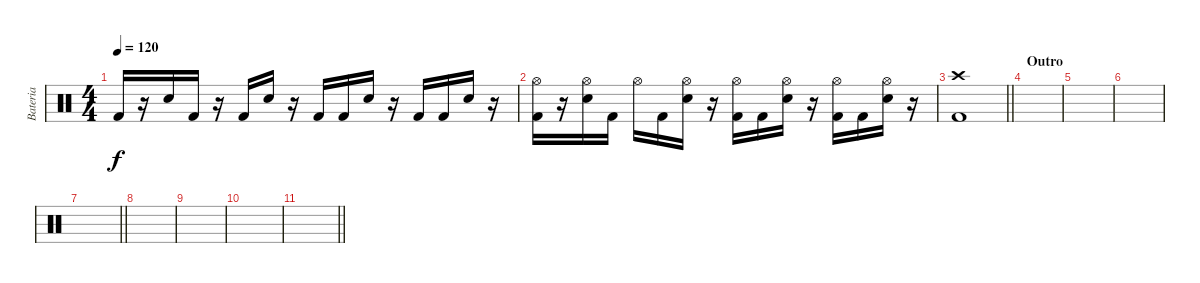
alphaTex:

\track ("Bateria" "Bateria") {instrument percussion}
\staff {score}
\articulation defaults
\ts (4 4)
\tempo 120
\clef neutral
\ks c "Kick (hit) 2".16{dy f}
r.16 "Electric Snare (hit)".16 "Kick (hit) 2".16 r.16 "Kick (hit) 2".16 "Electric Snare (hit)".16 r.16 "Kick (hit) 2".16 "Kick (hit) 2".16 "Electric Snare (hit)".16 r.16 "Kick (hit) 2".16 "Kick (hit) 2".16 "Electric Snare (hit)".16 r.16 |
("Hi-Hat (open)" "Kick (hit) 2").16 r.16 ("Hi-Hat (open)" "Electric Snare (hit)").16 "Kick (hit) 2".16 "Hi-Hat (open)".16 "Kick (hit) 2".16 ("Hi-Hat (open)" "Electric Snare (hit)").16 r.16 ("Hi-Hat (open)" "Kick (hit) 2").16 "Kick (hit) 2".16 ("Hi-Hat (open)" "Electric Snare (hit)").16 r.16 ("Hi-Hat (open)" "Kick (hit) 2").16 "Kick (hit) 2".16 ("Hi-Hat (open)" "Electric Snare (hit)").16 r.16 |
\barLineRight lightlight
("Crash high (hit)" "Kick (hit) 2").1 |
\section ("" "Outro")
|
|
|
\barLineRight lightlight
|
|
|
|
\barLineRight lightlight
